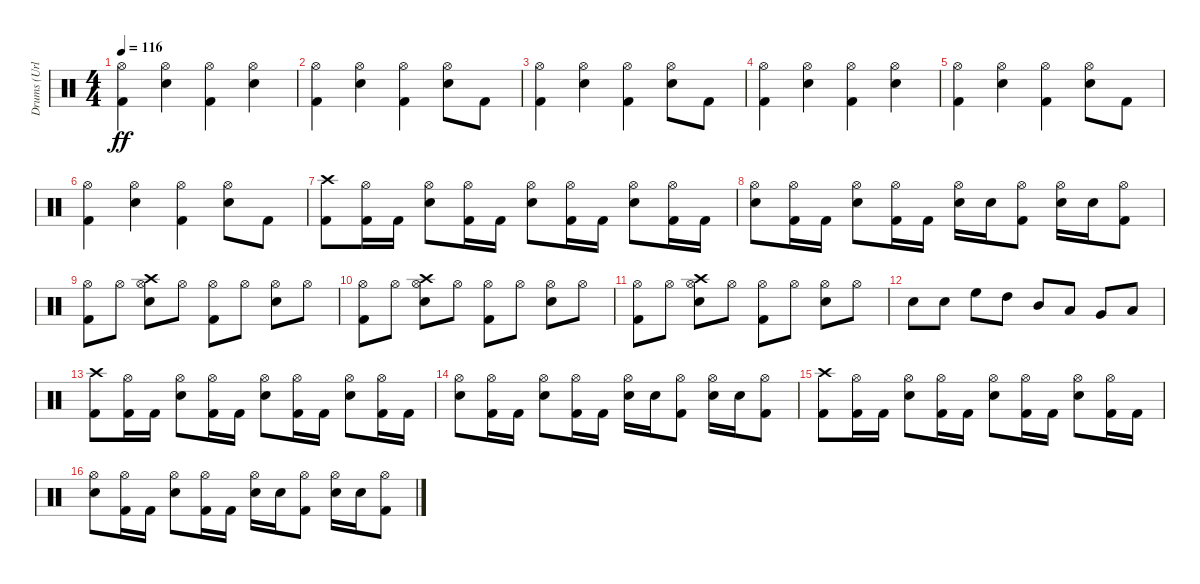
\track ("Drums (Urlich)" "Drums (Url") {instrument percussion}
\staff {score}
\articulation defaults
\ts (4 4)
\tempo 116
\clef neutral
\ks c
("Kick (hit) 2" "Hi-Hat (open)").4{dy ff} ("Snare (hit) 2" "Hi-Hat (open)").4 ("Kick (hit) 2" "Hi-Hat (open)").4 ("Snare (hit) 2" "Hi-Hat (open)").4 |
("Kick (hit) 2" "Hi-Hat (open)").4 ("Snare (hit) 2" "Hi-Hat (open)").4 ("Kick (hit) 2" "Hi-Hat (open)").4 ("Snare (hit) 2" "Hi-Hat (open)").8 "Kick (hit) 2".8 |
("Kick (hit) 2" "Hi-Hat (open)").4 ("Snare (hit) 2" "Hi-Hat (open)").4 ("Kick (hit) 2" "Hi-Hat (open)").4 ("Snare (hit) 2" "Hi-Hat (open)").8 "Kick (hit) 2".8 |
("Kick (hit) 2" "Hi-Hat (open)").4 ("Snare (hit) 2" "Hi-Hat (open)").4 ("Kick (hit) 2" "Hi-Hat (open)").4 ("Snare (hit) 2" "Hi-Hat (open)").4 |
("Kick (hit) 2" "Hi-Hat (open)").4 ("Snare (hit) 2" "Hi-Hat (open)").4 ("Kick (hit) 2" "Hi-Hat (open)").4 ("Snare (hit) 2" "Hi-Hat (open)").8 "Kick (hit) 2".8 |
("Kick (hit) 2" "Hi-Hat (open)").4 ("Snare (hit) 2" "Hi-Hat (open)").4 ("Kick (hit) 2" "Hi-Hat (open)").4 ("Snare (hit) 2" "Hi-Hat (open)").8 "Kick (hit) 2".8 |
("Kick (hit) 2" "Crash high (hit)").8 ("Kick (hit) 2" "Hi-Hat (open)").16 "Kick (hit) 2".16 ("Snare (hit) 2" "Hi-Hat (open)").8 ("Kick (hit) 2" "Hi-Hat (open)").16 "Kick (hit) 2".16 ("Snare (hit) 2" "Hi-Hat (open)").8 ("Kick (hit) 2" "Hi-Hat (open)").16 "Kick (hit) 2".16 ("Snare (hit) 2" "Hi-Hat (open)").8 ("Kick (hit) 2" "Hi-Hat (open)").16 "Kick (hit) 2".16 |
("Snare (hit) 2" "Hi-Hat (open)").8 ("Kick (hit) 2" "Hi-Hat (open)").16 "Kick (hit) 2".16 ("Snare (hit) 2" "Hi-Hat (open)").8 ("Kick (hit) 2" "Hi-Hat (open)").16 "Kick (hit) 2".16 ("Snare (hit) 2" "Hi-Hat (open)").16 "Snare (hit) 2".16 ("Kick (hit) 2" "Hi-Hat (open)").8 ("Snare (hit) 2" "Hi-Hat (open)").16 "Snare (hit) 2".16 ("Kick (hit) 2" "Hi-Hat (open)").8 |
("Kick (hit) 2" "Hi-Hat (open)").8 "Hi-Hat (open)".8 ("Snare (hit) 2" "Hi-Hat (open)" "Crash high (hit)").8 "Hi-Hat (open)".8 ("Kick (hit) 2" "Hi-Hat (open)").8 "Hi-Hat (open)".8 ("Snare (hit) 2" "Hi-Hat (open)").8 "Hi-Hat (open)".8 |
("Kick (hit) 2" "Hi-Hat (open)").8 "Hi-Hat (open)".8 ("Snare (hit) 2" "Hi-Hat (open)" "Crash high (hit)").8 "Hi-Hat (open)".8 ("Kick (hit) 2" "Hi-Hat (open)").8 "Hi-Hat (open)".8 ("Snare (hit) 2" "Hi-Hat (open)").8 "Hi-Hat (open)".8 |
("Kick (hit) 2" "Hi-Hat (open)").8 "Hi-Hat (open)".8 ("Snare (hit) 2" "Hi-Hat (open)" "Crash high (hit)").8 "Hi-Hat (open)".8 ("Kick (hit) 2" "Hi-Hat (open)").8 "Hi-Hat (open)".8 ("Snare (hit) 2" "Hi-Hat (open)").8 "Hi-Hat (open)".8 |
"Snare (hit) 2".8 "Snare (hit) 2".8 "High Floor Tom (hit)".8 "High Tom (hit)".8 "Mid Tom (hit)".8 "Low Tom (hit)".8 "Very Low Tom (hit)".8 "Low Floor Tom (hit)".8 |
("Kick (hit) 2" "Crash high (hit)").8 ("Kick (hit) 2" "Hi-Hat (open)").16 "Kick (hit) 2".16 ("Snare (hit) 2" "Hi-Hat (open)").8 ("Kick (hit) 2" "Hi-Hat (open)").16 "Kick (hit) 2".16 ("Snare (hit) 2" "Hi-Hat (open)").8 ("Kick (hit) 2" "Hi-Hat (open)").16 "Kick (hit) 2".16 ("Snare (hit) 2" "Hi-Hat (open)").8 ("Kick (hit) 2" "Hi-Hat (open)").16 "Kick (hit) 2".16 |
("Snare (hit) 2" "Hi-Hat (open)").8 ("Kick (hit) 2" "Hi-Hat (open)").16 "Kick (hit) 2".16 ("Snare (hit) 2" "Hi-Hat (open)").8 ("Kick (hit) 2" "Hi-Hat (open)").16 "Kick (hit) 2".16 ("Snare (hit) 2" "Hi-Hat (open)").16 "Snare (hit) 2".16 ("Kick (hit) 2" "Hi-Hat (open)").8 ("Snare (hit) 2" "Hi-Hat (open)").16 "Snare (hit) 2".16 ("Kick (hit) 2" "Hi-Hat (open)").8 |
("Kick (hit) 2" "Crash high (hit)").8 ("Kick (hit) 2" "Hi-Hat (open)").16 "Kick (hit) 2".16 ("Snare (hit) 2" "Hi-Hat (open)").8 ("Kick (hit) 2" "Hi-Hat (open)").16 "Kick (hit) 2".16 ("Snare (hit) 2" "Hi-Hat (open)").8 ("Kick (hit) 2" "Hi-Hat (open)").16 "Kick (hit) 2".16 ("Snare (hit) 2" "Hi-Hat (open)").8 ("Kick (hit) 2" "Hi-Hat (open)").16 "Kick (hit) 2".16 |
("Snare (hit) 2" "Hi-Hat (open)").8 ("Kick (hit) 2" "Hi-Hat (open)").16 "Kick (hit) 2".16 ("Snare (hit) 2" "Hi-Hat (open)").8 ("Kick (hit) 2" "Hi-Hat (open)").16 "Kick (hit) 2".16 ("Snare (hit) 2" "Hi-Hat (open)").16 "Snare (hit) 2".16 ("Kick (hit) 2" "Hi-Hat (open)").8 ("Snare (hit) 2" "Hi-Hat (open)").16 "Snare (hit) 2".16 ("Kick (hit) 2" "Hi-Hat (open)").8
